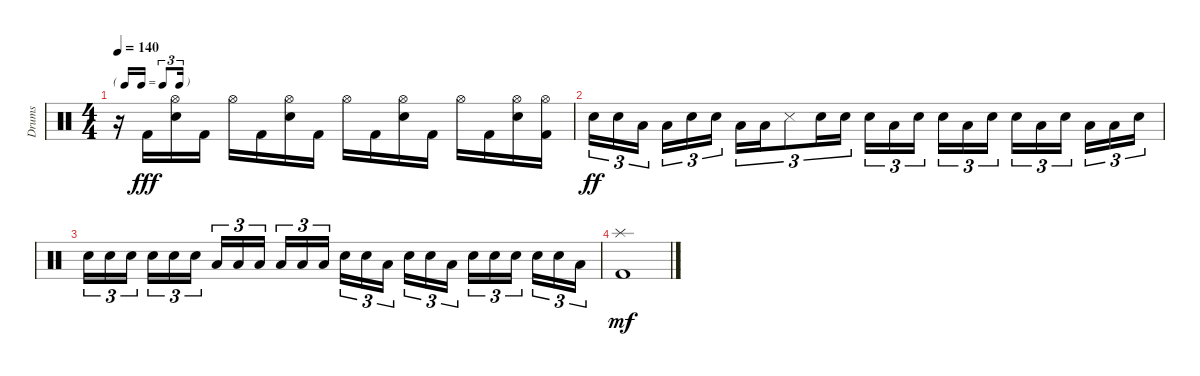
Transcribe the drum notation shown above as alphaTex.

\track ("Drums" "Drums") {instrument percussion}
\staff {score}
\articulation defaults
\ts (4 4)
\tf triplet16th
\tempo 140
\clef neutral
\ks c
r.16{dy fff} "Kick (hit) 2".16 ("Hi-Hat (open)" "Snare (hit) 2").16 "Kick (hit) 2".16 "Hi-Hat (open)".16 "Kick (hit) 2".16 ("Hi-Hat (open)" "Snare (hit) 2").16 "Kick (hit) 2".16 "Hi-Hat (open)".16 "Kick (hit) 2".16 ("Hi-Hat (open)" "Snare (hit) 2").16 "Kick (hit) 2".16 "Hi-Hat (open)".16 "Kick (hit) 2".16 ("Hi-Hat (open)" "Snare (hit) 2").16 ("Hi-Hat (open)" "Kick (hit) 2").16 |
"Snare (hit) 2".16{tu (3 2) dy ff} "Snare (hit) 2".16{tu (3 2)} "Low Tom (hit)".16{tu (3 2) beam splitsecondary} "Low Tom (hit)".16{tu (3 2)} "Snare (hit) 2".16{tu (3 2)} "Snare (hit) 2".16{tu (3 2)} "Low Tom (hit)".16{tu (3 2)} "Low Tom (hit)".16{tu (3 2)} "Metronome (hit)".8{tu (3 2)} "Snare (hit) 2".16{tu (3 2)} "Snare (hit) 2".16{tu (3 2)} "Snare (hit) 2".16{tu (3 2)} "Low Tom (hit)".16{tu (3 2)} "Snare (hit) 2".16{tu (3 2) beam splitsecondary} "Snare (hit) 2".16{tu (3 2)} "Low Tom (hit)".16{tu (3 2)} "Snare (hit) 2".16{tu (3 2)} "Snare (hit) 2".16{tu (3 2)} "Low Tom (hit)".16{tu (3 2)} "Snare (hit) 2".16{tu (3 2) beam splitsecondary} "Low Tom (hit)".16{tu (3 2)} "Low Tom (hit)".16{tu (3 2)} "Snare (hit) 2".16{tu (3 2)} |
"Snare (hit) 2".16{tu (3 2)} "Snare (hit) 2".16{tu (3 2)} "Snare (hit) 2".16{tu (3 2) beam splitsecondary} "Snare (hit) 2".16{tu (3 2)} "Snare (hit) 2".16{tu (3 2)} "Snare (hit) 2".16{tu (3 2)} "Low Tom (hit)".16{tu (3 2)} "Low Tom (hit)".16{tu (3 2)} "Low Tom (hit)".16{tu (3 2) beam splitsecondary} "Low Tom (hit)".16{tu (3 2)} "Low Tom (hit)".16{tu (3 2)} "Low Tom (hit)".16{tu (3 2)} "Snare (hit) 2".16{tu (3 2)} "Snare (hit) 2".16{tu (3 2)} "Low Tom (hit)".16{tu (3 2) beam splitsecondary} "Snare (hit) 2".16{tu (3 2)} "Snare (hit) 2".16{tu (3 2)} "Low Tom (hit)".16{tu (3 2)} "Snare (hit) 2".16{tu (3 2)} "Snare (hit) 2".16{tu (3 2)} "Snare (hit) 2".16{tu (3 2) beam splitsecondary} "Snare (hit) 2".16{tu (3 2)} "Snare (hit) 2".16{tu (3 2)} "Low Tom (hit)".16{tu (3 2)} |
("Splash (hit)" "Kick (hit) 2").1{dy mf}
